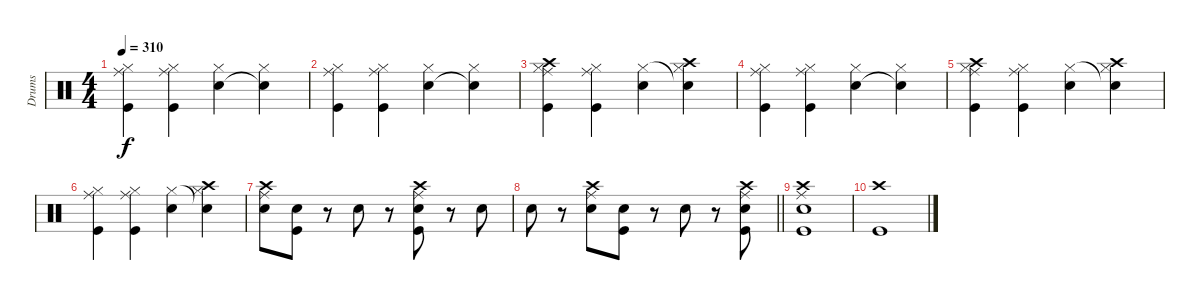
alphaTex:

\track ("Drums" "Drums") {instrument percussion}
\staff {score}
\articulation defaults
\ts (4 4)
\tempo 310
\clef neutral
\ks c
("Ride (middle)" "Hi-Hat (closed)" "Kick (hit)").4{dy f} ("Ride (middle)" "Hi-Hat (closed)" "Kick (hit)").4 ("Snare (hit) 2" "Hi-Hat (closed)").4 ("Snare (hit)"{t} "Hi-Hat (closed)").4 |
("Ride (middle)" "Hi-Hat (closed)" "Kick (hit)").4 ("Ride (middle)" "Hi-Hat (closed)" "Kick (hit)").4 ("Snare (hit) 2" "Hi-Hat (closed)").4 ("Snare (hit)"{t} "Hi-Hat (closed)").4 |
("Crash high (hit)" "Ride (middle)" "Hi-Hat (closed)" "Kick (hit)").4 ("Ride (middle)" "Hi-Hat (closed)" "Kick (hit)").4 ("Snare (hit) 2" "Hi-Hat (closed)").4 ("Crash high (hit)" "Snare (hit)"{t} "Hi-Hat (closed)").4 |
("Ride (middle)" "Hi-Hat (closed)" "Kick (hit)").4 ("Ride (middle)" "Hi-Hat (closed)" "Kick (hit)").4 ("Snare (hit) 2" "Hi-Hat (closed)").4 ("Snare (hit)"{t} "Hi-Hat (closed)").4 |
("Crash high (hit)" "Ride (middle)" "Hi-Hat (closed)" "Kick (hit)").4 ("Ride (middle)" "Hi-Hat (closed)" "Kick (hit)").4 ("Snare (hit) 2" "Hi-Hat (closed)").4 ("Crash high (hit)" "Snare (hit)"{t} "Hi-Hat (closed)").4 |
("Ride (middle)" "Hi-Hat (closed)" "Kick (hit)").4 ("Ride (middle)" "Hi-Hat (closed)" "Kick (hit)").4 ("Snare (hit) 2" "Hi-Hat (closed)").4 ("Crash high (hit)" "Snare (hit)"{t} "Hi-Hat (closed)").4 |
("Crash high (hit)" "Snare (hit) 2" "Ride (middle)").8 ("Snare (hit) 2" "Kick (hit)").8 r.8 "Snare (hit) 2".8 r.8 ("Crash high (hit)" "Snare (hit) 2" "Ride (middle)" "Kick (hit)").8 r.8 "Snare (hit) 2".8 |
\barLineRight lightlight "Snare (hit) 2".8
r.8 ("Crash high (hit)" "Snare (hit) 2" "Ride (middle)").8 ("Snare (hit) 2" "Kick (hit)").8 r.8 "Snare (hit) 2".8 r.8 ("Crash high (hit)" "Snare (hit) 2" "Ride (middle)" "Kick (hit)").8 |
("Crash high (hit)" "Snare (hit) 2" "Ride (middle)" "Kick (hit)").1 |
("Crash high (hit)" "Kick (hit)").1
